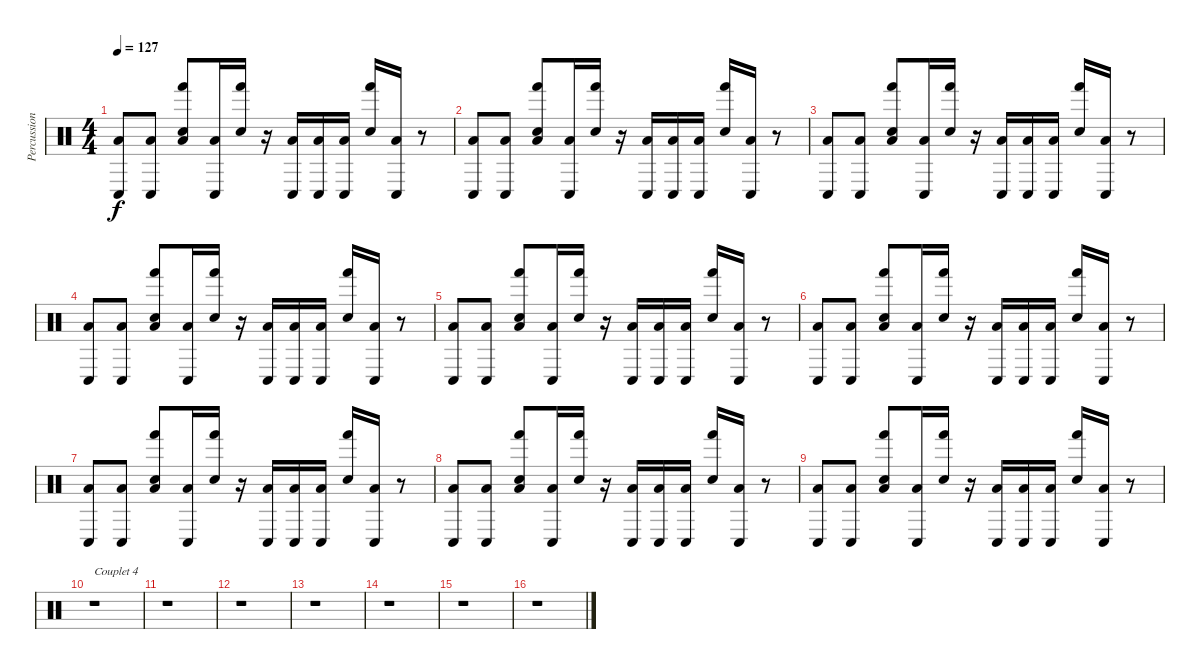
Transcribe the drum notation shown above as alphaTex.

\track ("Percussions" "Percussion") {instrument percussion}
\staff {score}
\articulation defaults
\ts (4 4)
\tempo 127
\clef neutral
\ks c
("Conga low (hit)" "Low Floor Tom (hit)").8{dy f} ("Conga low (hit)" "Low Floor Tom (hit)").8 ("Electric Snare (hit)" "Hand (hit)" "Low Floor Tom (hit)").8 ("Conga low (hit)" "Low Floor Tom (hit)").16 ("Electric Snare (hit)" "Hand (hit)").16 r.16 ("Conga low (hit)" "Low Floor Tom (hit)").16 ("Conga low (hit)" "Low Floor Tom (hit)").16 ("Conga low (hit)" "Low Floor Tom (hit)").16 ("Electric Snare (hit)" "Hand (hit)").16 ("Conga low (hit)" "Low Floor Tom (hit)").16 r.8 |
("Conga low (hit)" "Low Floor Tom (hit)").8 ("Conga low (hit)" "Low Floor Tom (hit)").8 ("Electric Snare (hit)" "Hand (hit)" "Low Floor Tom (hit)").8 ("Conga low (hit)" "Low Floor Tom (hit)").16 ("Electric Snare (hit)" "Hand (hit)").16 r.16 ("Conga low (hit)" "Low Floor Tom (hit)").16 ("Conga low (hit)" "Low Floor Tom (hit)").16 ("Conga low (hit)" "Low Floor Tom (hit)").16 ("Electric Snare (hit)" "Hand (hit)").16 ("Conga low (hit)" "Low Floor Tom (hit)").16 r.8 |
("Conga low (hit)" "Low Floor Tom (hit)").8 ("Conga low (hit)" "Low Floor Tom (hit)").8 ("Electric Snare (hit)" "Hand (hit)" "Low Floor Tom (hit)").8 ("Conga low (hit)" "Low Floor Tom (hit)").16 ("Electric Snare (hit)" "Hand (hit)").16 r.16 ("Conga low (hit)" "Low Floor Tom (hit)").16 ("Conga low (hit)" "Low Floor Tom (hit)").16 ("Conga low (hit)" "Low Floor Tom (hit)").16 ("Electric Snare (hit)" "Hand (hit)").16 ("Conga low (hit)" "Low Floor Tom (hit)").16 r.8 |
("Conga low (hit)" "Low Floor Tom (hit)").8 ("Conga low (hit)" "Low Floor Tom (hit)").8 ("Electric Snare (hit)" "Hand (hit)" "Low Floor Tom (hit)").8 ("Conga low (hit)" "Low Floor Tom (hit)").16 ("Electric Snare (hit)" "Hand (hit)").16 r.16 ("Conga low (hit)" "Low Floor Tom (hit)").16 ("Conga low (hit)" "Low Floor Tom (hit)").16 ("Conga low (hit)" "Low Floor Tom (hit)").16 ("Electric Snare (hit)" "Hand (hit)").16 ("Conga low (hit)" "Low Floor Tom (hit)").16 r.8 |
("Conga low (hit)" "Low Floor Tom (hit)").8 ("Conga low (hit)" "Low Floor Tom (hit)").8 ("Electric Snare (hit)" "Hand (hit)" "Low Floor Tom (hit)").8 ("Conga low (hit)" "Low Floor Tom (hit)").16 ("Electric Snare (hit)" "Hand (hit)").16 r.16 ("Conga low (hit)" "Low Floor Tom (hit)").16 ("Conga low (hit)" "Low Floor Tom (hit)").16 ("Conga low (hit)" "Low Floor Tom (hit)").16 ("Electric Snare (hit)" "Hand (hit)").16 ("Conga low (hit)" "Low Floor Tom (hit)").16 r.8 |
("Conga low (hit)" "Low Floor Tom (hit)").8 ("Conga low (hit)" "Low Floor Tom (hit)").8 ("Electric Snare (hit)" "Hand (hit)" "Low Floor Tom (hit)").8 ("Conga low (hit)" "Low Floor Tom (hit)").16 ("Electric Snare (hit)" "Hand (hit)").16 r.16 ("Conga low (hit)" "Low Floor Tom (hit)").16 ("Conga low (hit)" "Low Floor Tom (hit)").16 ("Conga low (hit)" "Low Floor Tom (hit)").16 ("Electric Snare (hit)" "Hand (hit)").16 ("Conga low (hit)" "Low Floor Tom (hit)").16 r.8 |
("Conga low (hit)" "Low Floor Tom (hit)").8 ("Conga low (hit)" "Low Floor Tom (hit)").8 ("Electric Snare (hit)" "Hand (hit)" "Low Floor Tom (hit)").8 ("Conga low (hit)" "Low Floor Tom (hit)").16 ("Electric Snare (hit)" "Hand (hit)").16 r.16 ("Conga low (hit)" "Low Floor Tom (hit)").16 ("Conga low (hit)" "Low Floor Tom (hit)").16 ("Conga low (hit)" "Low Floor Tom (hit)").16 ("Electric Snare (hit)" "Hand (hit)").16 ("Conga low (hit)" "Low Floor Tom (hit)").16 r.8 |
("Conga low (hit)" "Low Floor Tom (hit)").8 ("Conga low (hit)" "Low Floor Tom (hit)").8 ("Electric Snare (hit)" "Hand (hit)" "Low Floor Tom (hit)").8 ("Conga low (hit)" "Low Floor Tom (hit)").16 ("Electric Snare (hit)" "Hand (hit)").16 r.16 ("Conga low (hit)" "Low Floor Tom (hit)").16 ("Conga low (hit)" "Low Floor Tom (hit)").16 ("Conga low (hit)" "Low Floor Tom (hit)").16 ("Electric Snare (hit)" "Hand (hit)").16 ("Conga low (hit)" "Low Floor Tom (hit)").16 r.8 |
("Conga low (hit)" "Low Floor Tom (hit)").8 ("Conga low (hit)" "Low Floor Tom (hit)").8 ("Electric Snare (hit)" "Hand (hit)" "Low Floor Tom (hit)").8 ("Conga low (hit)" "Low Floor Tom (hit)").16 ("Electric Snare (hit)" "Hand (hit)").16 r.16 ("Conga low (hit)" "Low Floor Tom (hit)").16 ("Conga low (hit)" "Low Floor Tom (hit)").16 ("Conga low (hit)" "Low Floor Tom (hit)").16 ("Electric Snare (hit)" "Hand (hit)").16 ("Conga low (hit)" "Low Floor Tom (hit)").16 r.8 |
r.1{txt "Couplet 4"} |
r.1 |
r.1 |
r.1 |
r.1 |
r.1 |
r.1
